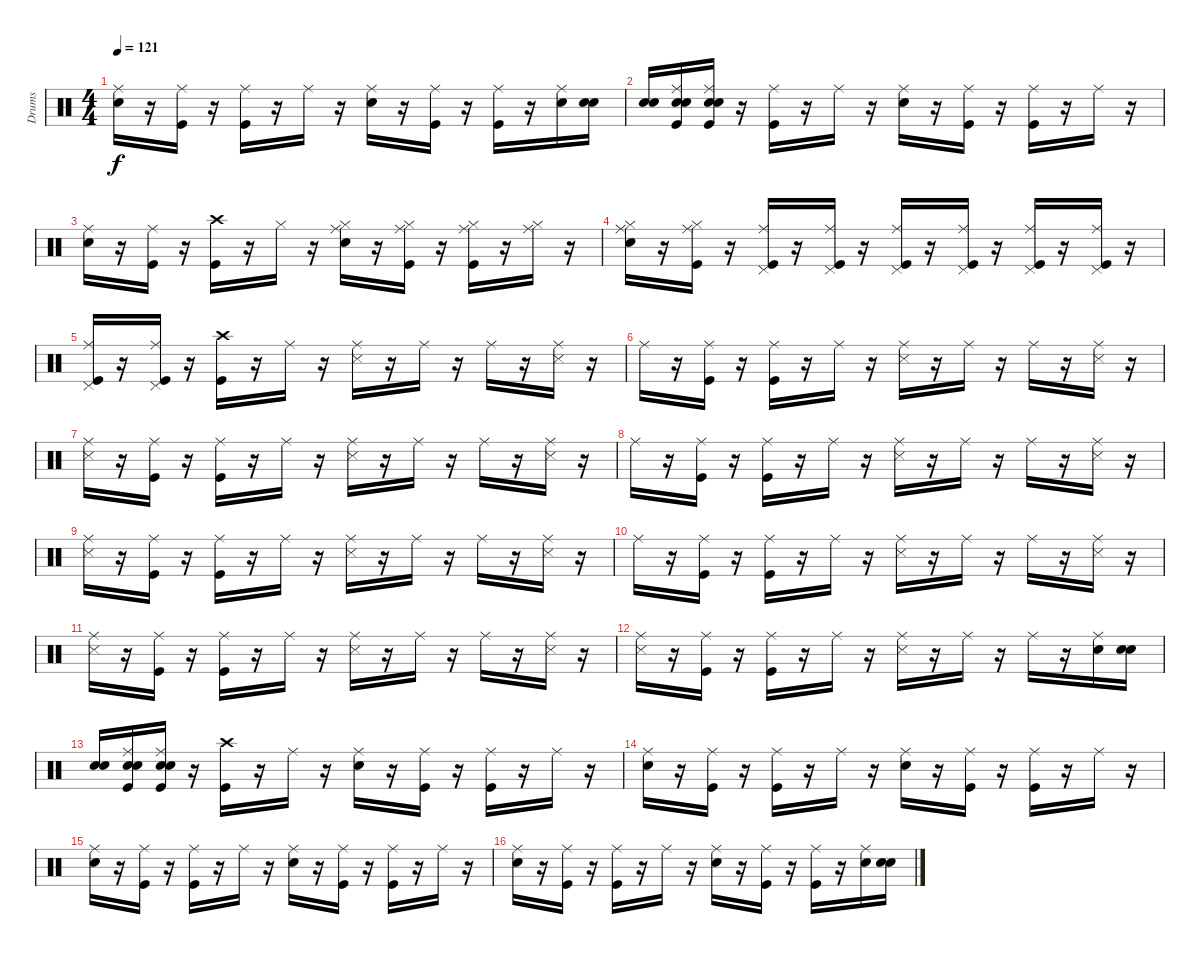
\track ("Drums" "Drums") {instrument percussion}
\staff {score}
\articulation defaults
\ts (4 4)
\tempo 121
\clef neutral
\ks c
("Snare (hit) 2" "Ride (middle)").16{dy f} r.16 ("Kick (hit)" "Ride (middle)").16 r.16 ("Ride (middle)" "Kick (hit)").16 r.16 "Ride (middle)".16 r.16 ("Snare (hit) 2" "Ride (middle)").16 r.16 ("Ride (middle)" "Kick (hit)").16 r.16 ("Kick (hit)" "Ride (middle)").16 r.16 ("Snare (hit) 2" "Ride (middle)").16 ("Snare (hit)" "Snare (hit) 2").16 |
("Snare (hit)" "Snare (hit) 2").16 ("Snare (hit)" "Kick (hit)" "Ride (middle)" "Snare (hit) 2").16 ("Snare (hit)" "Kick (hit)" "Ride (middle)" "Snare (hit) 2").16 r.16 ("Kick (hit)" "Ride (middle)").16 r.16 "Ride (middle)".16 r.16 ("Snare (hit) 2" "Ride (middle)").16 r.16 ("Ride (middle)" "Kick (hit)").16 r.16 ("Kick (hit)" "Ride (middle)").16 r.16 "Ride (middle)".16 r.16 |
("Snare (hit) 2" "Ride (middle)").16 r.16 ("Kick (hit)" "Ride (middle)").16 r.16 ("Crash high (hit)" "Kick (hit)").16 r.16 "Hi-Hat (closed)".16 r.16 ("Snare (hit) 2" "Ride (middle)" "Hi-Hat (closed)").16 r.16 ("Kick (hit)" "Hi-Hat (closed)" "Ride (middle)").16 r.16 ("Kick (hit)" "Ride (middle)" "Hi-Hat (closed)").16 r.16 ("Hi-Hat (closed)" "Ride (middle)").16 r.16 |
("Snare (hit) 2" "Ride (middle)" "Hi-Hat (closed)").16 r.16 ("Kick (hit)" "Ride (middle)" "Hi-Hat (closed)").16 r.16 ("Pedal Hi-Hat (hit)" "Kick (hit)" "Ride (middle)").16 r.16 ("Kick (hit)" "Pedal Hi-Hat (hit)" "Ride (middle)").16 r.16 ("Kick (hit)" "Pedal Hi-Hat (hit)" "Ride (middle)").16 r.16 ("Kick (hit)" "Pedal Hi-Hat (hit)" "Ride (middle)").16 r.16 ("Kick (hit)" "Ride (middle)" "Pedal Hi-Hat (hit)").16 r.16 ("Kick (hit)" "Pedal Hi-Hat (hit)" "Ride (middle)").16 r.16 |
("Kick (hit)" "Ride (middle)" "Pedal Hi-Hat (hit)").16 r.16 ("Kick (hit)" "Ride (middle)" "Pedal Hi-Hat (hit)").16 r.16 ("Crash high (hit)" "Kick (hit)").16 r.16 "Ride (middle)".16 r.16 ("Ride (middle)" "Snare (side stick) 3").16 r.16 "Ride (middle)".16 r.16 "Ride (middle)".16 r.16 ("Ride (middle)" "Snare (side stick) 3").16 r.16 |
"Ride (middle)".16 r.16 ("Kick (hit)" "Ride (middle)").16 r.16 ("Ride (middle)" "Kick (hit)").16 r.16 "Ride (middle)".16 r.16 ("Ride (middle)" "Snare (side stick) 3").16 r.16 "Ride (middle)".16 r.16 "Ride (middle)".16 r.16 ("Snare (side stick) 3" "Ride (middle)").16 r.16 |
("Snare (side stick) 3" "Ride (middle)").16 r.16 ("Kick (hit)" "Ride (middle)").16 r.16 ("Ride (middle)" "Kick (hit)").16 r.16 "Ride (middle)".16 r.16 ("Ride (middle)" "Snare (side stick) 3").16 r.16 "Ride (middle)".16 r.16 "Ride (middle)".16 r.16 ("Ride (middle)" "Snare (side stick) 3").16 r.16 |
"Ride (middle)".16 r.16 ("Kick (hit)" "Ride (middle)").16 r.16 ("Ride (middle)" "Kick (hit)").16 r.16 "Ride (middle)".16 r.16 ("Ride (middle)" "Snare (side stick) 3").16 r.16 "Ride (middle)".16 r.16 "Ride (middle)".16 r.16 ("Ride (middle)" "Snare (side stick) 3").16 r.16 |
("Ride (middle)" "Snare (side stick) 3").16 r.16 ("Kick (hit)" "Ride (middle)").16 r.16 ("Ride (middle)" "Kick (hit)").16 r.16 "Ride (middle)".16 r.16 ("Ride (middle)" "Snare (side stick) 3").16 r.16 "Ride (middle)".16 r.16 "Ride (middle)".16 r.16 ("Ride (middle)" "Snare (side stick) 3").16 r.16 |
"Ride (middle)".16 r.16 ("Kick (hit)" "Ride (middle)").16 r.16 ("Ride (middle)" "Kick (hit)").16 r.16 "Ride (middle)".16 r.16 ("Ride (middle)" "Snare (side stick) 3").16 r.16 "Ride (middle)".16 r.16 "Ride (middle)".16 r.16 ("Ride (middle)" "Snare (side stick) 3").16 r.16 |
("Ride (middle)" "Snare (side stick) 3").16 r.16 ("Kick (hit)" "Ride (middle)").16 r.16 ("Ride (middle)" "Kick (hit)").16 r.16 "Ride (middle)".16 r.16 ("Ride (middle)" "Snare (side stick) 3").16 r.16 "Ride (middle)".16 r.16 "Ride (middle)".16 r.16 ("Ride (middle)" "Snare (side stick) 3").16 r.16 |
("Snare (side stick) 3" "Ride (middle)").16 r.16 ("Kick (hit)" "Ride (middle)").16 r.16 ("Ride (middle)" "Kick (hit)").16 r.16 "Ride (middle)".16 r.16 ("Ride (middle)" "Snare (side stick) 3").16 r.16 "Ride (middle)".16 r.16 "Ride (middle)".16 r.16 ("Snare (hit) 2" "Ride (middle)").16 ("Snare (hit)" "Snare (hit) 2").16 |
("Snare (hit)" "Snare (hit) 2").16 ("Snare (hit)" "Kick (hit)" "Ride (middle)" "Snare (hit) 2").16 ("Snare (hit)" "Kick (hit)" "Ride (middle)" "Snare (hit) 2").16 r.16 ("Kick (hit)" "Crash high (hit)").16 r.16 "Ride (middle)".16 r.16 ("Snare (hit) 2" "Ride (middle)").16 r.16 ("Kick (hit)" "Ride (middle)").16 r.16 ("Ride (middle)" "Kick (hit)").16 r.16 "Ride (middle)".16 r.16 |
("Snare (hit) 2" "Ride (middle)").16 r.16 ("Kick (hit)" "Ride (middle)").16 r.16 ("Ride (middle)" "Kick (hit)").16 r.16 "Ride (middle)".16 r.16 ("Snare (hit) 2" "Ride (middle)").16 r.16 ("Kick (hit)" "Ride (middle)").16 r.16 ("Kick (hit)" "Ride (middle)").16 r.16 "Ride (middle)".16 r.16 |
("Snare (hit) 2" "Ride (middle)").16 r.16 ("Kick (hit)" "Ride (middle)").16 r.16 ("Ride (middle)" "Kick (hit)").16 r.16 "Ride (middle)".16 r.16 ("Snare (hit) 2" "Ride (middle)").16 r.16 ("Ride (middle)" "Kick (hit)").16 r.16 ("Ride (middle)" "Kick (hit)").16 r.16 "Ride (middle)".16 r.16 |
("Snare (hit) 2" "Ride (middle)").16 r.16 ("Kick (hit)" "Ride (middle)").16 r.16 ("Ride (middle)" "Kick (hit)").16 r.16 "Ride (middle)".16 r.16 ("Snare (hit) 2" "Ride (middle)").16 r.16 ("Kick (hit)" "Ride (middle)").16 r.16 ("Ride (middle)" "Kick (hit)").16 r.16 ("Snare (hit) 2" "Ride (middle)").16 ("Snare (hit)" "Snare (hit) 2").16
